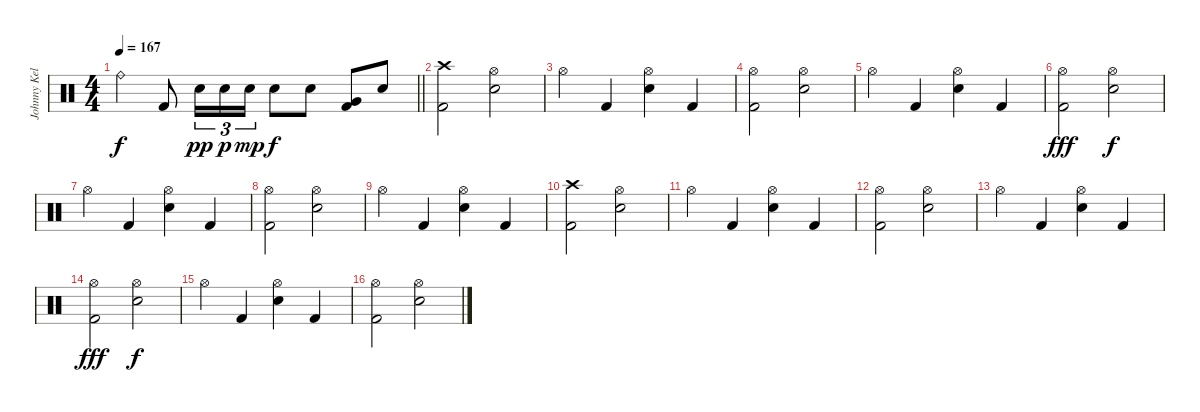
\track ("Johnny Kelly" "Johnny Kel") {instrument percussion}
\staff {score}
\articulation defaults
\ts (4 4)
\tempo 167
\clef neutral
\barLineRight lightlight
\ks c "Ride (bell)".4{dy f} "Kick (hit) 2".8 "Electric Snare (hit)".16{tu (3 2) dy pp} "Electric Snare (hit)".16{tu (3 2) dy p} "Electric Snare (hit)".16{tu (3 2) dy mp} "Electric Snare (hit)".8{dy f} "Electric Snare (hit)".8
("Very Low Tom (hit)" "Kick (hit) 2").8 "Electric Snare (hit)".8 |
\section ("" "")
("Crash high (hit)" "Kick (hit) 2").2 ("Hi-Hat (open)" "Electric Snare (hit)").2 |
"Hi-Hat (open)".4 "Kick (hit) 2".4 ("Hi-Hat (open)" "Electric Snare (hit)").4 "Kick (hit) 2".4 |
("Hi-Hat (open)" "Kick (hit) 2").2 ("Hi-Hat (open)" "Electric Snare (hit)").2 |
"Hi-Hat (open)".4 "Kick (hit) 2".4 ("Hi-Hat (open)" "Electric Snare (hit)").4 "Kick (hit) 2".4 |
("Hi-Hat (open)" "Kick (hit) 2").2{dy fff} ("Hi-Hat (open)" "Electric Snare (hit)").2{dy f} |
"Hi-Hat (open)".4 "Kick (hit) 2".4 ("Hi-Hat (open)" "Electric Snare (hit)").4 "Kick (hit) 2".4 |
("Hi-Hat (open)" "Kick (hit) 2").2 ("Hi-Hat (open)" "Electric Snare (hit)").2 |
"Hi-Hat (open)".4 "Kick (hit) 2".4 ("Hi-Hat (open)" "Electric Snare (hit)").4 "Kick (hit) 2".4 |
("Crash high (hit)" "Kick (hit) 2").2 ("Hi-Hat (open)" "Electric Snare (hit)").2 |
"Hi-Hat (open)".4 "Kick (hit) 2".4 ("Hi-Hat (open)" "Electric Snare (hit)").4 "Kick (hit) 2".4 |
("Hi-Hat (open)" "Kick (hit) 2").2 ("Hi-Hat (open)" "Electric Snare (hit)").2 |
"Hi-Hat (open)".4 "Kick (hit) 2".4 ("Hi-Hat (open)" "Electric Snare (hit)").4 "Kick (hit) 2".4 |
("Hi-Hat (open)" "Kick (hit) 2").2{dy fff} ("Hi-Hat (open)" "Electric Snare (hit)").2{dy f} |
"Hi-Hat (open)".4 "Kick (hit) 2".4 ("Hi-Hat (open)" "Electric Snare (hit)").4 "Kick (hit) 2".4 |
("Hi-Hat (open)" "Kick (hit) 2").2 ("Hi-Hat (open)" "Electric Snare (hit)").2
